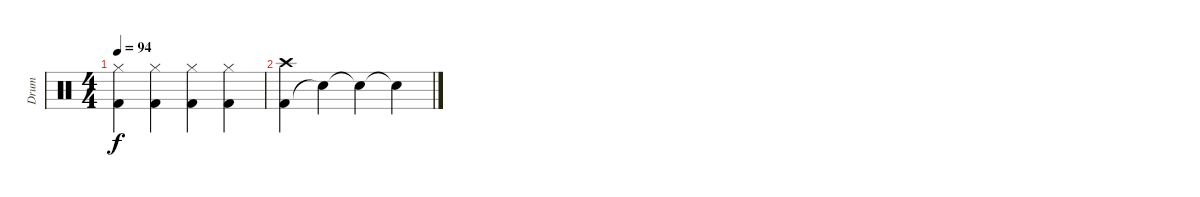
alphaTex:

\track ("Drum" "Drum") {instrument percussion}
\staff {score}
\articulation defaults
\ts (4 4)
\tempo 94
\clef neutral
\ks c
("Kick (hit) 2" "Hi-Hat (closed)").4{dy f} ("Kick (hit) 2" "Hi-Hat (closed)").4 ("Kick (hit) 2" "Hi-Hat (closed)").4 ("Kick (hit) 2" "Hi-Hat (closed)").4 |
("Kick (hit) 2" "Crash high (hit)").4 "Snare (hit)"{t}.4 "Snare (hit)"{t}.4 "Snare (hit)"{t}.4
